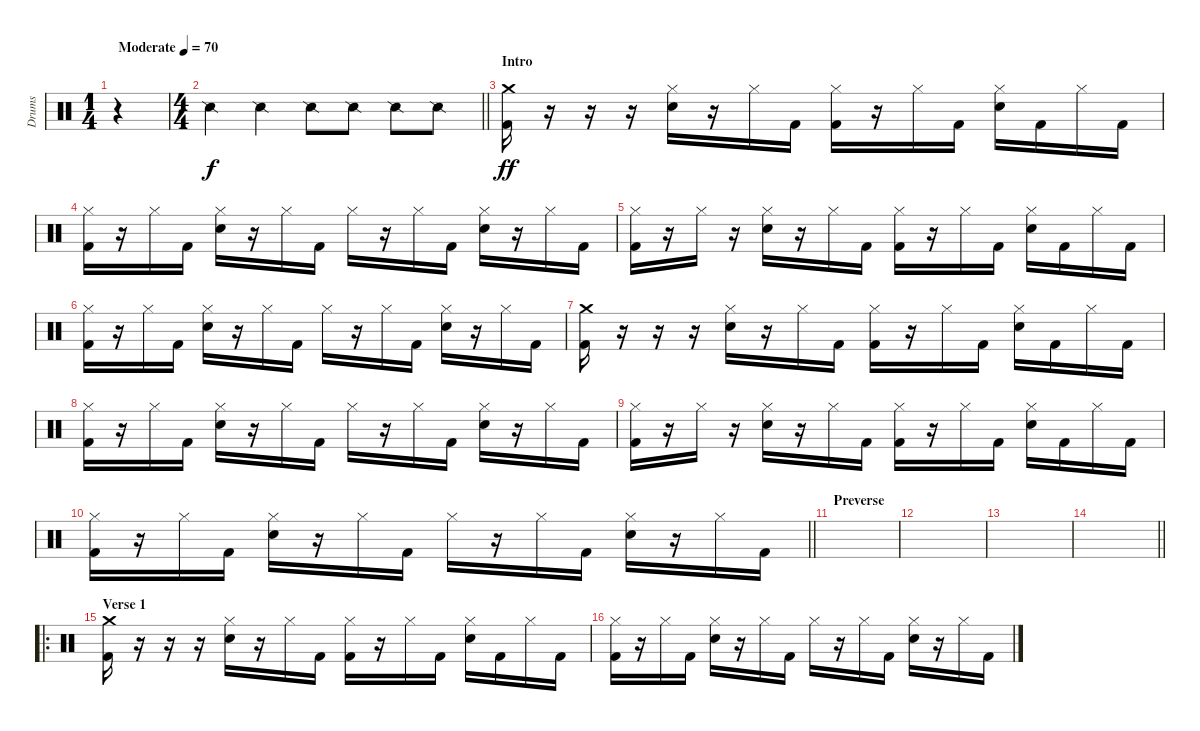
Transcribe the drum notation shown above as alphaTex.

\track ("Drums" "Drums") {instrument percussion}
\staff {score}
\articulation defaults
\voice
\ts (1 4)
\tempo (70 "Moderate")
\clef neutral
\ks c
r.4{dy f} |
\ts (4 4)
\barLineRight lightlight "Snare (side stick) 2".4 "Snare (side stick) 2".4 "Snare (side stick) 2".8 "Snare (side stick) 2".8 "Snare (side stick) 2".8 "Snare (side stick) 2".8
|
\section ("" "Intro")
("Crash medium (hit)" "Kick (hit) 2").16{dy ff} r.16 r.16 r.16 ("Hi-Hat (closed)" "Snare (hit) 2").16 r.16 "Hi-Hat (closed)".16 "Kick (hit) 2".16 ("Hi-Hat (closed)" "Kick (hit) 2").16 r.16 "Hi-Hat (closed)".16 "Kick (hit) 2".16 ("Hi-Hat (closed)" "Snare (hit) 2").16 "Kick (hit) 2".16 "Hi-Hat (closed)".16 "Kick (hit) 2".16 |
("Hi-Hat (closed)" "Kick (hit) 2").16 r.16 "Hi-Hat (closed)".16 "Kick (hit) 2".16 ("Hi-Hat (closed)" "Snare (hit) 2").16 r.16 "Hi-Hat (closed)".16 "Kick (hit) 2".16 "Hi-Hat (closed)".16 r.16 "Hi-Hat (closed)".16 "Kick (hit) 2".16 ("Hi-Hat (closed)" "Snare (hit) 2").16 r.16 "Hi-Hat (closed)".16 "Kick (hit) 2".16 |
("Hi-Hat (closed)" "Kick (hit) 2").16 r.16 "Hi-Hat (closed)".16 r.16 ("Hi-Hat (closed)" "Snare (hit) 2").16 r.16 "Hi-Hat (closed)".16 "Kick (hit) 2".16 ("Hi-Hat (closed)" "Kick (hit) 2").16 r.16 "Hi-Hat (closed)".16 "Kick (hit) 2".16 ("Hi-Hat (closed)" "Snare (hit) 2").16 "Kick (hit) 2".16 "Hi-Hat (closed)".16 "Kick (hit) 2".16 |
("Hi-Hat (closed)" "Kick (hit) 2").16 r.16 "Hi-Hat (closed)".16 "Kick (hit) 2".16 ("Hi-Hat (closed)" "Snare (hit) 2").16 r.16 "Hi-Hat (closed)".16 "Kick (hit) 2".16 "Hi-Hat (closed)".16 r.16 "Hi-Hat (closed)".16 "Kick (hit) 2".16 ("Hi-Hat (closed)" "Snare (hit) 2").16 r.16 "Hi-Hat (closed)".16 "Kick (hit) 2".16 |
("Crash medium (hit)" "Kick (hit) 2").16 r.16 r.16 r.16 ("Hi-Hat (closed)" "Snare (hit) 2").16 r.16 "Hi-Hat (closed)".16 "Kick (hit) 2".16 ("Hi-Hat (closed)" "Kick (hit) 2").16 r.16 "Hi-Hat (closed)".16 "Kick (hit) 2".16 ("Hi-Hat (closed)" "Snare (hit) 2").16 "Kick (hit) 2".16 "Hi-Hat (closed)".16 "Kick (hit) 2".16 |
("Hi-Hat (closed)" "Kick (hit) 2").16 r.16 "Hi-Hat (closed)".16 "Kick (hit) 2".16 ("Hi-Hat (closed)" "Snare (hit) 2").16 r.16 "Hi-Hat (closed)".16 "Kick (hit) 2".16 "Hi-Hat (closed)".16 r.16 "Hi-Hat (closed)".16 "Kick (hit) 2".16 ("Hi-Hat (closed)" "Snare (hit) 2").16 r.16 "Hi-Hat (closed)".16 "Kick (hit) 2".16 |
("Hi-Hat (closed)" "Kick (hit) 2").16 r.16 "Hi-Hat (closed)".16 r.16 ("Hi-Hat (closed)" "Snare (hit) 2").16 r.16 "Hi-Hat (closed)".16 "Kick (hit) 2".16 ("Hi-Hat (closed)" "Kick (hit) 2").16 r.16 "Hi-Hat (closed)".16 "Kick (hit) 2".16 ("Hi-Hat (closed)" "Snare (hit) 2").16 "Kick (hit) 2".16 "Hi-Hat (closed)".16 "Kick (hit) 2".16 |
\barLineRight lightlight
("Hi-Hat (closed)" "Kick (hit) 2").16 r.16 "Hi-Hat (closed)".16 "Kick (hit) 2".16 ("Hi-Hat (closed)" "Snare (hit) 2").16 r.16 "Hi-Hat (closed)".16 "Kick (hit) 2".16 "Hi-Hat (closed)".16 r.16 "Hi-Hat (closed)".16 "Kick (hit) 2".16 ("Hi-Hat (closed)" "Snare (hit) 2").16 r.16 "Hi-Hat (closed)".16 "Kick (hit) 2".16 |
\section ("" "Preverse")
|
|
|
\barLineRight lightlight
|
\ro
\section ("" "Verse 1")
("Crash medium (hit)" "Kick (hit) 2").16 r.16 r.16 r.16 ("Hi-Hat (closed)" "Snare (hit) 2").16 r.16 "Hi-Hat (closed)".16 "Kick (hit) 2".16 ("Hi-Hat (closed)" "Kick (hit) 2").16 r.16 "Hi-Hat (closed)".16 "Kick (hit) 2".16 ("Hi-Hat (closed)" "Snare (hit) 2").16 "Kick (hit) 2".16 "Hi-Hat (closed)".16 "Kick (hit) 2".16 |
("Hi-Hat (closed)" "Kick (hit) 2").16 r.16 "Hi-Hat (closed)".16 "Kick (hit) 2".16 ("Hi-Hat (closed)" "Snare (hit) 2").16 r.16 "Hi-Hat (closed)".16 "Kick (hit) 2".16 "Hi-Hat (closed)".16 r.16 "Hi-Hat (closed)".16 "Kick (hit) 2".16 ("Hi-Hat (closed)" "Snare (hit) 2").16 r.16 "Hi-Hat (closed)".16 "Kick (hit) 2".16
\voice
\clef neutral
\ottava regular
\simile none
\ks c
r.4{dy f} |
\barLineRight lightlight
|
|
|
|
|
|
|
|
\barLineRight lightlight
|
|
|
|
\barLineRight lightlight
|
|
